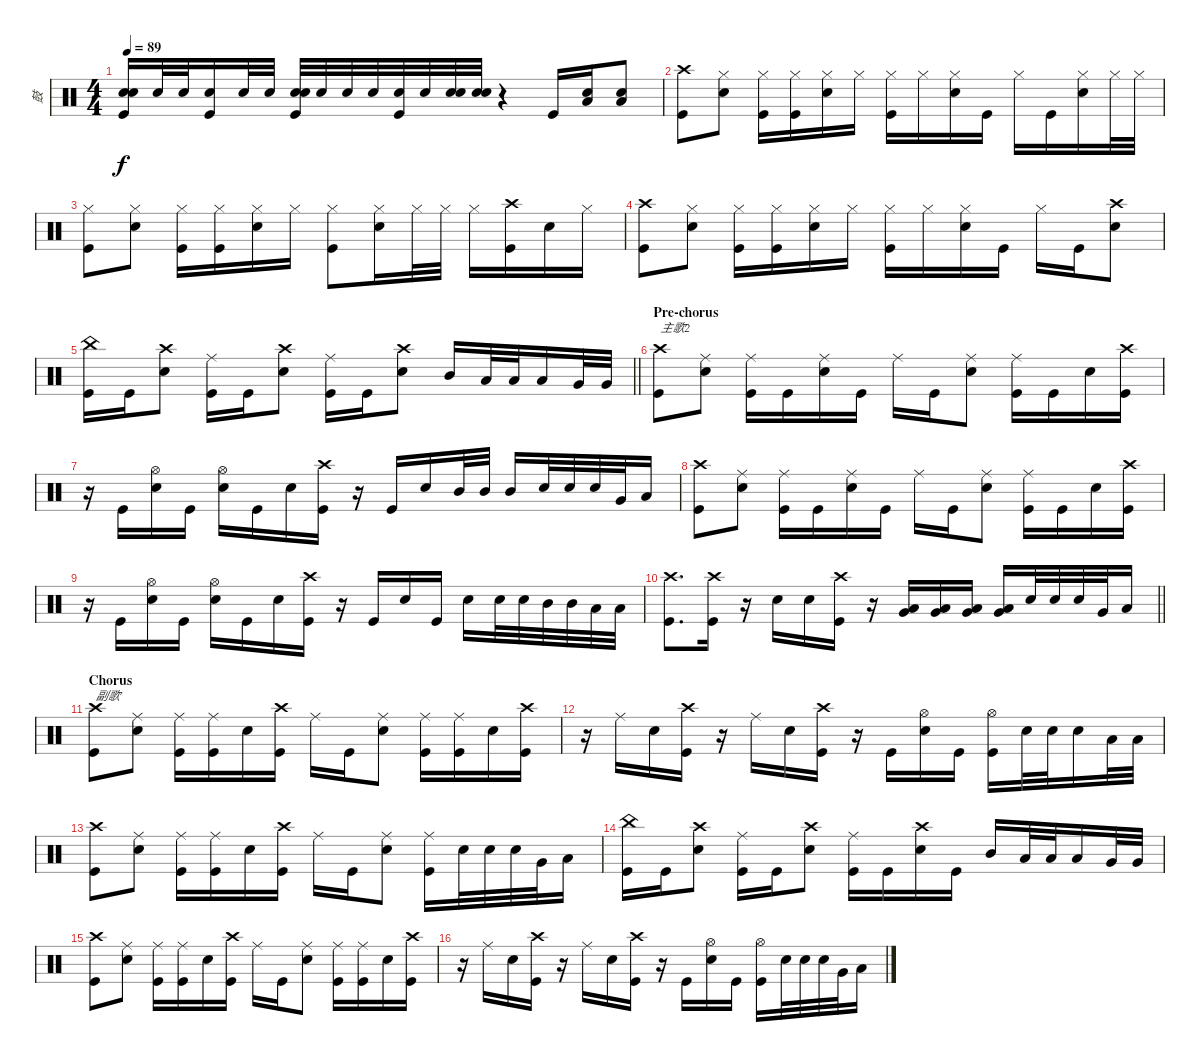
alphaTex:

\track ("鼓" "鼓") {instrument percussion}
\staff {score}
\articulation defaults
\ts (4 4)
\tempo 89
\clef neutral
\ks c
("Snare (hit) 2" "Kick (hit)" "Snare (hit) 2").16{dy f} "Snare (hit) 2".32 "Snare (hit) 2".32 ("Snare (hit) 2" "Kick (hit)").16 "Snare (hit) 2".32 "Snare (hit) 2".32 ("Snare (hit) 2" "Kick (hit)" "Snare (hit) 2").32 "Snare (hit) 2".32 "Snare (hit) 2".32 "Snare (hit) 2".32 ("Snare (hit) 2" "Kick (hit)").32 "Snare (hit) 2".32 ("Snare (hit) 2" "Snare (hit) 2").32 ("Snare (hit) 2" "Snare (hit) 2").32 r.4 "Kick (hit)".16 ("Snare (hit) 2" "Low Floor Tom (hit)").16 ("Snare (hit) 2" "Low Floor Tom (hit)").8 |
("Crash high (hit)" "Kick (hit)").8 ("Snare (hit) 2" "Hi-Hat (closed)").8 ("Kick (hit)" "Hi-Hat (closed)").16 ("Kick (hit)" "Hi-Hat (closed)").16 ("Hi-Hat (closed)" "Snare (hit) 2").16 "Hi-Hat (closed)".16 ("Hi-Hat (closed)" "Kick (hit)").16 "Hi-Hat (closed)".16 ("Snare (hit) 2" "Hi-Hat (closed)").16 "Kick (hit)".16 "Hi-Hat (closed)".16 "Kick (hit)".16 ("Snare (hit) 2" "Hi-Hat (closed)").16 "Hi-Hat (closed)".32 "Hi-Hat (closed)".32 |
("Hi-Hat (closed)" "Kick (hit)").8 ("Snare (hit) 2" "Hi-Hat (closed)").8 ("Kick (hit)" "Hi-Hat (closed)").16 ("Kick (hit)" "Hi-Hat (closed)").16 ("Hi-Hat (closed)" "Snare (hit) 2").16 "Hi-Hat (closed)".16 ("Kick (hit)" "Hi-Hat (closed)").8 ("Snare (hit) 2" "Hi-Hat (closed)").16 "Hi-Hat (closed)".32 "Hi-Hat (closed)".32 "Hi-Hat (closed)".16 ("Kick (hit)" "Crash high (hit)").16 "Snare (hit) 2".16 "Hi-Hat (closed)".16 |
("Crash high (hit)" "Kick (hit)").8 ("Snare (hit) 2" "Hi-Hat (closed)").8 ("Kick (hit)" "Hi-Hat (closed)").16 ("Kick (hit)" "Hi-Hat (closed)").16 ("Hi-Hat (closed)" "Snare (hit) 2").16 "Hi-Hat (closed)".16 ("Hi-Hat (closed)" "Kick (hit)").16 "Hi-Hat (closed)".16 ("Snare (hit) 2" "Hi-Hat (closed)").16 "Kick (hit)".16 "Hi-Hat (closed)".16 "Kick (hit)".16 ("Snare (hit) 2" "Crash high (hit)").8 |
\barLineRight lightlight
("China (hit)" "Kick (hit)").16 "Kick (hit)".16 ("Snare (hit) 2" "Crash high (hit)").8 ("Ride (middle)" "Kick (hit)").16 "Kick (hit)".16 ("Snare (hit) 2" "Crash high (hit)").8 ("Ride (middle)" "Kick (hit)").16 "Kick (hit)".16 ("Snare (hit) 2" "Crash high (hit)").8 "Mid Tom (hit)".16 "Low Tom (hit)".32 "Low Tom (hit)".32 "Low Tom (hit)".16 "Very Low Tom (hit)".32 "Very Low Tom (hit)".32 |
\section ("" "Pre-chorus")
("Crash high (hit)" "Kick (hit)").8{txt "主歌2"} ("Ride (middle)" "Snare (hit) 2").8 ("Ride (middle)" "Kick (hit)").16 "Kick (hit)".16 ("Snare (hit) 2" "Ride (middle)").16 "Kick (hit)".16 "Ride (middle)".16 "Kick (hit)".16 ("Snare (hit) 2" "Ride (middle)").8 ("Ride (middle)" "Kick (hit)").16 "Kick (hit)".16 "Snare (hit) 2".16 ("Crash high (hit)" "Kick (hit)").16 |
r.16 "Kick (hit)".16 ("Snare (hit) 2" "Hi-Hat (open)").16 "Kick (hit)".16 ("Snare (hit) 2" "Hi-Hat (open)").16 "Kick (hit)".16 "Snare (hit) 2".16 ("Kick (hit)" "Crash high (hit)").16 r.16 "Kick (hit)".16 "Snare (hit) 2".16 "Mid Tom (hit)".32 "Mid Tom (hit)".32 "Mid Tom (hit)".16 "Snare (hit) 2".32 "Snare (hit) 2".32 "Snare (hit) 2".32 "Very Low Tom (hit)".32 "Low Floor Tom (hit)".16 |
("Crash high (hit)" "Kick (hit)").8 ("Ride (middle)" "Snare (hit) 2").8 ("Ride (middle)" "Kick (hit)").16 "Kick (hit)".16 ("Snare (hit) 2" "Ride (middle)").16 "Kick (hit)".16 "Ride (middle)".16 "Kick (hit)".16 ("Snare (hit) 2" "Ride (middle)").8 ("Ride (middle)" "Kick (hit)").16 "Kick (hit)".16 "Snare (hit) 2".16 ("Crash high (hit)" "Kick (hit)").16 |
r.16 "Kick (hit)".16 ("Snare (hit) 2" "Hi-Hat (open)").16 "Kick (hit)".16 ("Snare (hit) 2" "Hi-Hat (open)").16 "Kick (hit)".16 "Snare (hit) 2".16 ("Kick (hit)" "Crash high (hit)").16 r.16 "Kick (hit)".16 "Snare (hit) 2".16 "Kick (hit)".16 "Snare (hit) 2".16 "Snare (hit) 2".32 "Snare (hit) 2".32 "Mid Tom (hit)".32 "Mid Tom (hit)".32 "Low Tom (hit)".32 "Low Tom (hit)".32 |
\barLineRight lightlight
("Crash high (hit)" "Kick (hit)").8{d} ("Kick (hit)" "Crash high (hit)").16 r.16 "Snare (hit) 2".16 "Snare (hit) 2".16 ("Kick (hit)" "Crash high (hit)").16 r.16 ("Very Low Tom (hit)" "Low Floor Tom (hit)").16 ("Very Low Tom (hit)" "Low Floor Tom (hit)").16 ("Very Low Tom (hit)" "Low Floor Tom (hit)").16 ("Very Low Tom (hit)" "Low Floor Tom (hit)").16 "Snare (hit) 2".32 "Snare (hit) 2".32 "Snare (hit) 2".32 "Very Low Tom (hit)".32 "Low Floor Tom (hit)".16 |
\section ("" "Chorus")
("Crash high (hit)" "Kick (hit)").8{txt "副歌"} ("Snare (hit) 2" "Ride (middle)").8 ("Kick (hit)" "Ride (middle)").16 ("Kick (hit)" "Ride (middle)").16 "Snare (hit) 2".16 ("Kick (hit)" "Crash high (hit)").16 "Ride (middle)".16 "Kick (hit)".16 ("Snare (hit) 2" "Ride (middle)").8 ("Kick (hit)" "Ride (middle)").16 ("Kick (hit)" "Ride (middle)").16 "Snare (hit) 2".16 ("Kick (hit)" "Crash high (hit)").16 |
r.16 "Ride (middle)".16 "Snare (hit) 2".16 ("Kick (hit)" "Crash high (hit)").16 r.16 "Ride (middle)".16 "Snare (hit) 2".16 ("Kick (hit)" "Crash high (hit)").16 r.16 "Kick (hit)".16 ("Snare (hit) 2" "Hi-Hat (open)").16 "Kick (hit)".16 ("Kick (hit)" "Hi-Hat (open)").16 "Snare (hit) 2".32 "Snare (hit) 2".32 "Snare (hit) 2".16 "Low Tom (hit)".32 "Low Tom (hit)".32 |
("Crash high (hit)" "Kick (hit)").8 ("Snare (hit) 2" "Ride (middle)").8 ("Kick (hit)" "Ride (middle)").16 ("Kick (hit)" "Ride (middle)").16 "Snare (hit) 2".16 ("Kick (hit)" "Crash high (hit)").16 "Ride (middle)".16 "Kick (hit)".16 ("Snare (hit) 2" "Ride (middle)").8 ("Ride (middle)" "Kick (hit)").16 "Snare (hit) 2".32 "Snare (hit) 2".32 "Snare (hit) 2".32 "Very Low Tom (hit)".32 "Low Floor Tom (hit)".16 |
("China (hit)" "Kick (hit)").16 "Kick (hit)".16 ("Snare (hit) 2" "Crash high (hit)").8 ("Ride (middle)" "Kick (hit)").16 "Kick (hit)".16 ("Snare (hit) 2" "Crash high (hit)").8 ("Ride (middle)" "Kick (hit)").16 "Kick (hit)".16 ("Snare (hit) 2" "Crash high (hit)").16 "Kick (hit)".16 "Mid Tom (hit)".16 "Low Tom (hit)".32 "Low Tom (hit)".32 "Low Tom (hit)".16 "Very Low Tom (hit)".32 "Very Low Tom (hit)".32 |
("Crash high (hit)" "Kick (hit)").8 ("Snare (hit) 2" "Ride (middle)").8 ("Kick (hit)" "Ride (middle)").16 ("Kick (hit)" "Ride (middle)").16 "Snare (hit) 2".16 ("Kick (hit)" "Crash high (hit)").16 "Ride (middle)".16 "Kick (hit)".16 ("Snare (hit) 2" "Ride (middle)").8 ("Kick (hit)" "Ride (middle)").16 ("Kick (hit)" "Ride (middle)").16 "Snare (hit) 2".16 ("Kick (hit)" "Crash high (hit)").16 |
r.16 "Ride (middle)".16 "Snare (hit) 2".16 ("Kick (hit)" "Crash high (hit)").16 r.16 "Ride (middle)".16 "Snare (hit) 2".16 ("Kick (hit)" "Crash high (hit)").16 r.16 "Kick (hit)".16 ("Snare (hit) 2" "Hi-Hat (open)").16 "Kick (hit)".16 ("Kick (hit)" "Hi-Hat (open)").16 "Snare (hit) 2".32 "Snare (hit) 2".32 "Snare (hit) 2".32 "Very Low Tom (hit)".32 "Low Floor Tom (hit)".16
